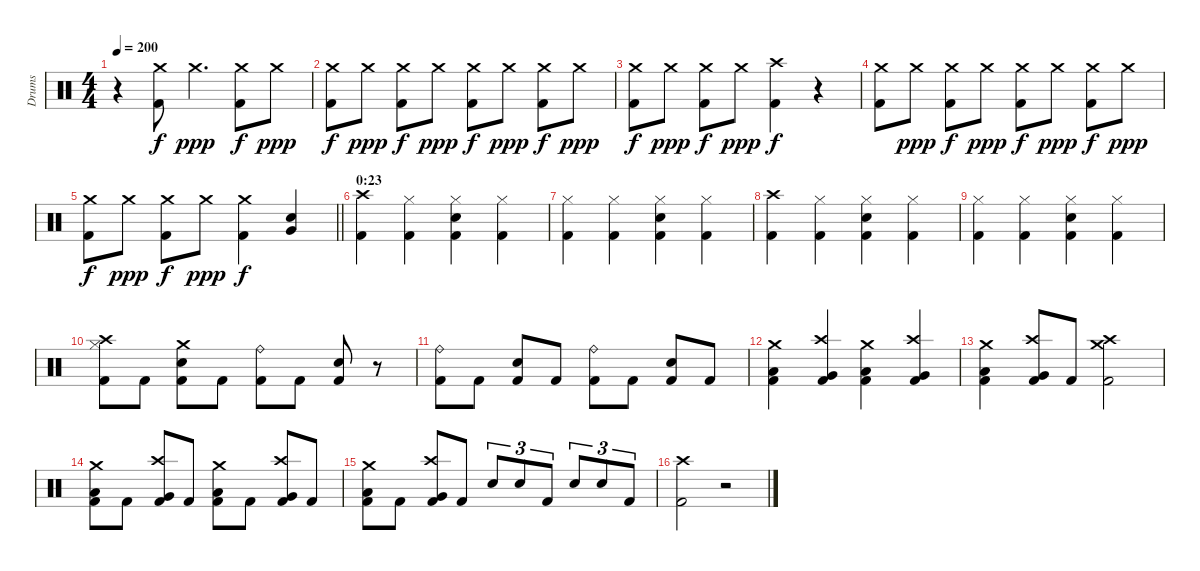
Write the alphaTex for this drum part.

\track ("Drums" "Drums") {instrument percussion}
\staff {score}
\articulation defaults
\ts (4 4)
\tempo 200
\clef neutral
\ks c
r.4{dy ppp} ("Crash medium (hit)" "Kick (hit) 2").8{dy f} "Crash medium (hit)".4{d dy ppp} ("Crash medium (hit)" "Kick (hit) 2").8{dy f} "Crash medium (hit)".8{dy ppp} |
("Crash medium (hit)" "Kick (hit) 2").8{dy f} "Crash medium (hit)".8{dy ppp} ("Crash medium (hit)" "Kick (hit) 2").8{dy f} "Crash medium (hit)".8{dy ppp} ("Crash medium (hit)" "Kick (hit) 2").8{dy f} "Crash medium (hit)".8{dy ppp} ("Crash medium (hit)" "Kick (hit) 2").8{dy f} "Crash medium (hit)".8{dy ppp} |
("Crash medium (hit)" "Kick (hit) 2").8{dy f} "Crash medium (hit)".8{dy ppp} ("Crash medium (hit)" "Kick (hit) 2").8{dy f} "Crash medium (hit)".8{dy ppp} ("Crash high (hit)" "Kick (hit) 2").4{dy f} r.4 |
("Crash medium (hit)" "Kick (hit) 2").8 "Crash medium (hit)".8{dy ppp} ("Crash medium (hit)" "Kick (hit) 2").8{dy f} "Crash medium (hit)".8{dy ppp} ("Crash medium (hit)" "Kick (hit) 2").8{dy f} "Crash medium (hit)".8{dy ppp} ("Crash medium (hit)" "Kick (hit) 2").8{dy f} "Crash medium (hit)".8{dy ppp} |
\barLineRight lightlight
("Crash medium (hit)" "Kick (hit) 2").8{dy f} "Crash medium (hit)".8{dy ppp} ("Crash medium (hit)" "Kick (hit) 2").8{dy f} "Crash medium (hit)".8{dy ppp} ("Crash medium (hit)" "Kick (hit) 2").4{dy f} ("Snare (hit) 2" "Very Low Tom (hit)").4 |
\section ("" "0:23")
("Crash high (hit)" "Kick (hit) 2").4 ("Hi-Hat (closed)" "Kick (hit) 2").4 ("Snare (hit) 2" "Hi-Hat (closed)" "Kick (hit) 2").4 ("Hi-Hat (closed)" "Kick (hit) 2").4 |
("Hi-Hat (closed)" "Kick (hit) 2").4 ("Hi-Hat (closed)" "Kick (hit) 2").4 ("Snare (hit) 2" "Hi-Hat (closed)" "Kick (hit) 2").4 ("Hi-Hat (closed)" "Kick (hit) 2").4 |
("Crash high (hit)" "Kick (hit) 2").4 ("Hi-Hat (closed)" "Kick (hit) 2").4 ("Snare (hit) 2" "Hi-Hat (closed)" "Kick (hit) 2").4 ("Hi-Hat (closed)" "Kick (hit) 2").4 |
("Hi-Hat (closed)" "Kick (hit) 2").4 ("Hi-Hat (closed)" "Kick (hit) 2").4 ("Snare (hit) 2" "Hi-Hat (closed)" "Kick (hit) 2").4 ("Hi-Hat (closed)" "Kick (hit) 2").4 |
("Crash high (hit)" "Hi-Hat (closed)" "Kick (hit) 2").8 "Kick (hit) 2".8 ("Crash medium (hit)" "Snare (hit) 2" "Kick (hit) 2").8 "Kick (hit) 2".8 ("Ride (bell)" "Kick (hit) 2").8 "Kick (hit) 2".8 ("Snare (hit) 2" "Kick (hit) 2").8 r.8 |
("Ride (bell)" "Kick (hit) 2").8 "Kick (hit) 2".8 ("Snare (hit) 2" "Kick (hit) 2").8 "Kick (hit) 2".8 ("Ride (bell)" "Kick (hit) 2").8 "Kick (hit) 2".8 ("Snare (hit) 2" "Kick (hit) 2").8 "Kick (hit) 2".8 |
("Crash medium (hit)" "Low Tom (hit)" "Kick (hit) 2").4 ("Crash high (hit)" "Very Low Tom (hit)" "Kick (hit) 2").4 ("Crash medium (hit)" "Low Tom (hit)" "Kick (hit) 2").4 ("Crash high (hit)" "Very Low Tom (hit)" "Kick (hit) 2").4 |
("Crash medium (hit)" "Low Tom (hit)" "Kick (hit) 2").4 ("Crash high (hit)" "Very Low Tom (hit)" "Kick (hit) 2").8 "Kick (hit) 2".8 ("Crash medium (hit)" "Crash high (hit)" "Kick (hit) 2").2 |
("Crash medium (hit)" "Low Tom (hit)" "Kick (hit) 2").8 "Kick (hit) 2".8 ("Crash high (hit)" "Very Low Tom (hit)" "Kick (hit) 2").8 "Kick (hit) 2".8 ("Crash medium (hit)" "Low Tom (hit)" "Kick (hit) 2").8 "Kick (hit) 2".8 ("Crash high (hit)" "Very Low Tom (hit)" "Kick (hit) 2").8 "Kick (hit) 2".8 |
("Crash medium (hit)" "Low Tom (hit)" "Kick (hit) 2").8 "Kick (hit) 2".8 ("Crash high (hit)" "Very Low Tom (hit)" "Kick (hit) 2").8 "Kick (hit) 2".8 "Snare (hit) 2".8{tu (3 2)} "Snare (hit) 2".8{tu (3 2)} "Kick (hit) 2".8{tu (3 2)} "Snare (hit) 2".8{tu (3 2)} "Snare (hit) 2".8{tu (3 2)} "Kick (hit) 2".8{tu (3 2)} |
("Crash high (hit)" "Kick (hit) 2").2 r.2
